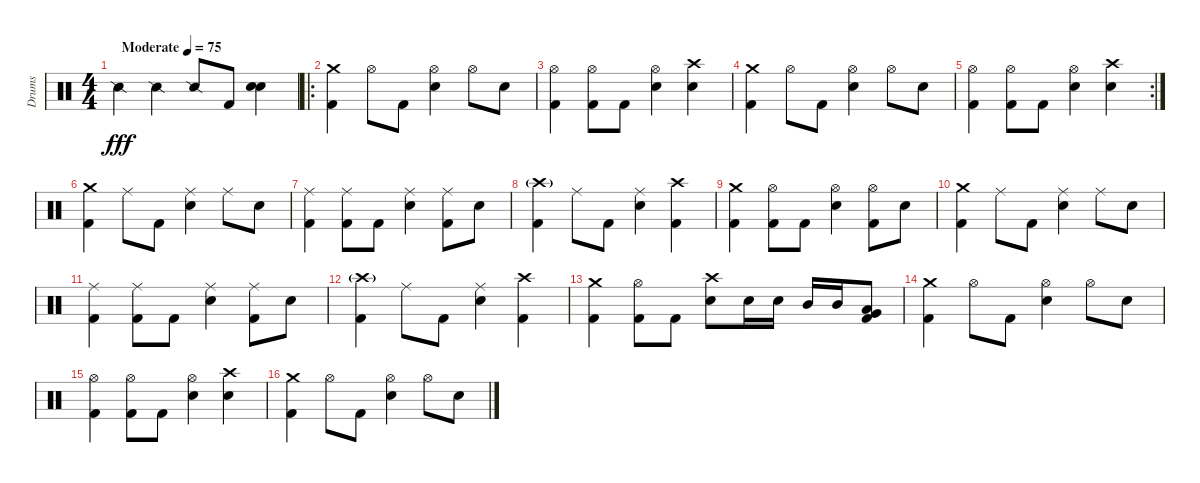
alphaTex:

\track ("Drums" "Drums") {instrument percussion}
\staff {score}
\articulation defaults
\ts (4 4)
\tempo (75 "Moderate")
\clef neutral
\ks c "Snare (side stick) 2".4{dy fff} "Snare (side stick) 2".4 "Snare (side stick) 2".8 "Kick (hit) 2".8
("Snare (hit) 2" "Snare (hit) 2").4 |
\ro
("Crash medium (hit)" "Kick (hit) 2").4 "Hi-Hat (open)".8 "Kick (hit) 2".8 ("Hi-Hat (open)" "Snare (hit) 2").4 "Hi-Hat (open)".8 "Snare (hit) 2".8 |
("Hi-Hat (open)" "Kick (hit) 2").4 ("Hi-Hat (open)" "Kick (hit) 2").8 "Kick (hit) 2".8 ("Hi-Hat (open)" "Snare (hit) 2").4 ("Crash high (hit)" "Snare (hit) 2").4 |
("Crash medium (hit)" "Kick (hit) 2").4 "Hi-Hat (open)".8 "Kick (hit) 2".8 ("Hi-Hat (open)" "Snare (hit) 2").4 "Hi-Hat (open)".8 "Snare (hit) 2".8 |
\rc 2
("Hi-Hat (open)" "Kick (hit) 2").4 ("Hi-Hat (open)" "Kick (hit) 2").8 "Kick (hit) 2".8 ("Hi-Hat (open)" "Snare (hit) 2").4 ("Crash high (hit)" "Snare (hit) 2").4 |
("Crash medium (hit)" "Kick (hit) 2").4 "Ride (middle)".8 "Kick (hit) 2".8 ("Ride (middle)" "Snare (hit) 2").4 "Ride (middle)".8 "Snare (hit) 2".8 |
("Ride (middle)" "Kick (hit) 2").4 ("Ride (middle)" "Kick (hit) 2").8 "Kick (hit) 2".8 ("Ride (middle)" "Snare (hit) 2").4 ("Ride (middle)" "Kick (hit) 2").8 "Snare (hit) 2".8 |
("Crash high (hit)"{g} "Kick (hit) 2").4 "Ride (middle)".8 "Kick (hit) 2".8 ("Ride (middle)" "Snare (hit) 2").4 ("Crash high (hit)" "Kick (hit) 2").4 |
("Crash medium (hit)" "Kick (hit) 2").4 ("Hi-Hat (open)" "Kick (hit) 2").8 "Kick (hit) 2".8 ("Hi-Hat (open)" "Snare (hit) 2").4 ("Hi-Hat (open)" "Kick (hit) 2").8 "Snare (hit) 2".8 |
("Crash medium (hit)" "Kick (hit) 2").4 "Ride (middle)".8 "Kick (hit) 2".8 ("Ride (middle)" "Snare (hit) 2").4 "Ride (middle)".8 "Snare (hit) 2".8 |
("Ride (middle)" "Kick (hit) 2").4 ("Ride (middle)" "Kick (hit) 2").8 "Kick (hit) 2".8 ("Ride (middle)" "Snare (hit) 2").4 ("Ride (middle)" "Kick (hit) 2").8 "Snare (hit) 2".8 |
("Crash high (hit)"{g} "Kick (hit) 2").4 "Ride (middle)".8 "Kick (hit) 2".8 ("Ride (middle)" "Snare (hit) 2").4 ("Crash high (hit)" "Kick (hit) 2").4 |
("Crash medium (hit)" "Kick (hit) 2").4 ("Hi-Hat (open)" "Kick (hit) 2").8 "Kick (hit) 2".8 ("Crash high (hit)" "Snare (hit) 2").8 "Snare (hit) 2".16 "Snare (hit) 2".16 "Mid Tom (hit)".16 "Mid Tom (hit)".16 ("Very Low Tom (hit)" "Low Floor Tom (hit)" "Kick (hit) 2").8 |
("Crash medium (hit)" "Kick (hit) 2").4 "Hi-Hat (open)".8 "Kick (hit) 2".8 ("Hi-Hat (open)" "Snare (hit) 2").4 "Hi-Hat (open)".8 "Snare (hit) 2".8 |
("Hi-Hat (open)" "Kick (hit) 2").4 ("Hi-Hat (open)" "Kick (hit) 2").8 "Kick (hit) 2".8 ("Hi-Hat (open)" "Snare (hit) 2").4 ("Crash high (hit)" "Snare (hit) 2").4 |
("Crash medium (hit)" "Kick (hit) 2").4 "Hi-Hat (open)".8 "Kick (hit) 2".8 ("Hi-Hat (open)" "Snare (hit) 2").4 "Hi-Hat (open)".8 "Snare (hit) 2".8
